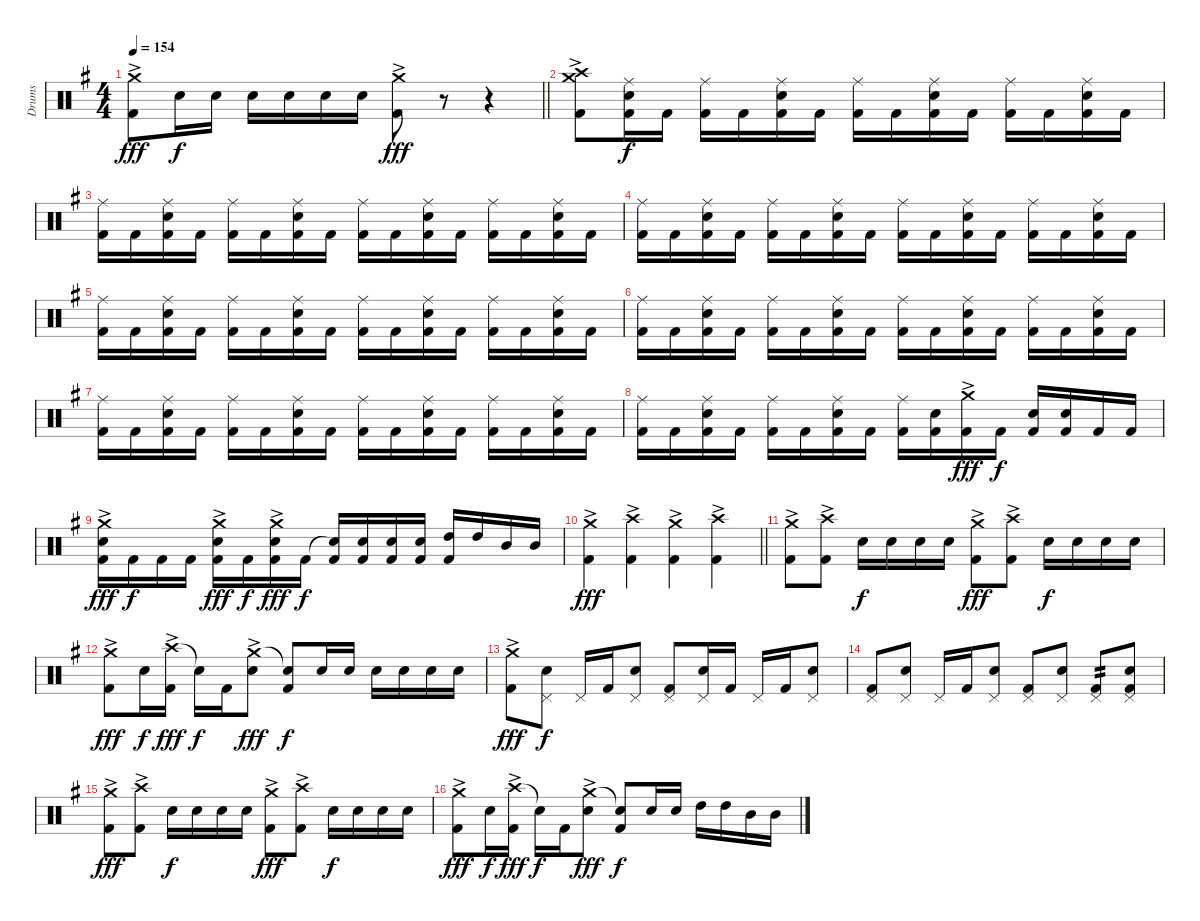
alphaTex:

\track ("Drums" "Drums") {instrument percussion}
\staff {score}
\articulation defaults
\ts (4 4)
\tempo 154
\clef neutral
\barLineRight lightlight
\ks g
("Crash medium (hit)"{ac} "Kick (hit) 2"{ac}).8{dy fff} "Snare (hit) 2".16{dy f} "Snare (hit) 2".16 "Snare (hit) 2".16 "Snare (hit) 2".16 "Snare (hit) 2".16 "Snare (hit) 2".16 ("Crash medium (hit)"{ac} "Kick (hit) 2"{ac}).8{dy fff} r.8 r.4 |
("Crash medium (hit)"{ac} "Crash high (hit)"{ac} "Kick (hit) 2"{ac}).8 ("Ride (middle)" "Snare (hit) 2" "Kick (hit) 2").16{dy f} "Kick (hit) 2".16 ("Ride (middle)" "Kick (hit) 2").16 "Kick (hit) 2".16 ("Ride (middle)" "Snare (hit) 2" "Kick (hit) 2").16 "Kick (hit) 2".16 ("Ride (middle)" "Kick (hit) 2").16 "Kick (hit) 2".16 ("Ride (middle)" "Snare (hit) 2" "Kick (hit) 2").16 "Kick (hit) 2".16 ("Ride (middle)" "Kick (hit) 2").16 "Kick (hit) 2".16 ("Ride (middle)" "Snare (hit) 2" "Kick (hit) 2").16 "Kick (hit) 2".16 |
("Ride (middle)" "Kick (hit) 2").16 "Kick (hit) 2".16 ("Ride (middle)" "Snare (hit) 2" "Kick (hit) 2").16 "Kick (hit) 2".16 ("Ride (middle)" "Kick (hit) 2").16 "Kick (hit) 2".16 ("Ride (middle)" "Snare (hit) 2" "Kick (hit) 2").16 "Kick (hit) 2".16 ("Ride (middle)" "Kick (hit) 2").16 "Kick (hit) 2".16 ("Ride (middle)" "Snare (hit) 2" "Kick (hit) 2").16 "Kick (hit) 2".16 ("Ride (middle)" "Kick (hit) 2").16 "Kick (hit) 2".16 ("Ride (middle)" "Snare (hit) 2" "Kick (hit) 2").16 "Kick (hit) 2".16 |
("Ride (middle)" "Kick (hit) 2").16 "Kick (hit) 2".16 ("Ride (middle)" "Snare (hit) 2" "Kick (hit) 2").16 "Kick (hit) 2".16 ("Ride (middle)" "Kick (hit) 2").16 "Kick (hit) 2".16 ("Ride (middle)" "Snare (hit) 2" "Kick (hit) 2").16 "Kick (hit) 2".16 ("Ride (middle)" "Kick (hit) 2").16 "Kick (hit) 2".16 ("Ride (middle)" "Snare (hit) 2" "Kick (hit) 2").16 "Kick (hit) 2".16 ("Ride (middle)" "Kick (hit) 2").16 "Kick (hit) 2".16 ("Ride (middle)" "Snare (hit) 2" "Kick (hit) 2").16 "Kick (hit) 2".16 |
("Ride (middle)" "Kick (hit) 2").16 "Kick (hit) 2".16 ("Ride (middle)" "Snare (hit) 2" "Kick (hit) 2").16 "Kick (hit) 2".16 ("Ride (middle)" "Kick (hit) 2").16 "Kick (hit) 2".16 ("Ride (middle)" "Snare (hit) 2" "Kick (hit) 2").16 "Kick (hit) 2".16 ("Ride (middle)" "Kick (hit) 2").16 "Kick (hit) 2".16 ("Ride (middle)" "Snare (hit) 2" "Kick (hit) 2").16 "Kick (hit) 2".16 ("Ride (middle)" "Kick (hit) 2").16 "Kick (hit) 2".16 ("Ride (middle)" "Snare (hit) 2" "Kick (hit) 2").16 "Kick (hit) 2".16 |
("Ride (middle)" "Kick (hit) 2").16 "Kick (hit) 2".16 ("Ride (middle)" "Snare (hit) 2" "Kick (hit) 2").16 "Kick (hit) 2".16 ("Ride (middle)" "Kick (hit) 2").16 "Kick (hit) 2".16 ("Ride (middle)" "Snare (hit) 2" "Kick (hit) 2").16 "Kick (hit) 2".16 ("Ride (middle)" "Kick (hit) 2").16 "Kick (hit) 2".16 ("Ride (middle)" "Snare (hit) 2" "Kick (hit) 2").16 "Kick (hit) 2".16 ("Ride (middle)" "Kick (hit) 2").16 "Kick (hit) 2".16 ("Ride (middle)" "Snare (hit) 2" "Kick (hit) 2").16 "Kick (hit) 2".16 |
("Ride (middle)" "Kick (hit) 2").16 "Kick (hit) 2".16 ("Ride (middle)" "Snare (hit) 2" "Kick (hit) 2").16 "Kick (hit) 2".16 ("Ride (middle)" "Kick (hit) 2").16 "Kick (hit) 2".16 ("Ride (middle)" "Snare (hit) 2" "Kick (hit) 2").16 "Kick (hit) 2".16 ("Ride (middle)" "Kick (hit) 2").16 "Kick (hit) 2".16 ("Ride (middle)" "Snare (hit) 2" "Kick (hit) 2").16 "Kick (hit) 2".16 ("Ride (middle)" "Kick (hit) 2").16 "Kick (hit) 2".16 ("Ride (middle)" "Snare (hit) 2" "Kick (hit) 2").16 "Kick (hit) 2".16 |
("Ride (middle)" "Kick (hit) 2").16 "Kick (hit) 2".16 ("Ride (middle)" "Snare (hit) 2" "Kick (hit) 2").16 "Kick (hit) 2".16 ("Ride (middle)" "Kick (hit) 2").16 "Kick (hit) 2".16 ("Ride (middle)" "Snare (hit) 2" "Kick (hit) 2").16 "Kick (hit) 2".16 ("Ride (middle)" "Kick (hit) 2").16 ("Snare (hit) 2" "Kick (hit) 2").16 ("Crash medium (hit)"{ac} "Kick (hit) 2").16{dy fff} "Kick (hit) 2".16{dy f} ("Snare (hit) 2" "Kick (hit) 2").16 ("Snare (hit) 2" "Kick (hit) 2").16 "Kick (hit) 2".16 "Kick (hit) 2".16 |
("Crash medium (hit)"{ac} "Snare (hit) 2"{ac} "Kick (hit) 2").16{dy fff} "Kick (hit) 2".16{dy f} "Kick (hit) 2".16 "Kick (hit) 2".16 ("Crash medium (hit)"{ac} "Snare (hit) 2"{ac} "Kick (hit) 2").16{dy fff} "Kick (hit) 2".16{dy f} ("Crash medium (hit)"{ac} "Snare (hit) 2"{ac} "Kick (hit) 2").16{dy fff} "Kick (hit) 2".16{dy f} ("Snare (hit)"{t} "Kick (hit) 2").16 ("Snare (hit) 2" "Kick (hit) 2").16 ("Snare (hit) 2" "Kick (hit) 2").16 ("Snare (hit) 2" "Kick (hit) 2").16 ("High Tom (hit)" "Kick (hit) 2").16 "High Tom (hit)".16 "Mid Tom (hit)".16 "Mid Tom (hit)".16 |
\barLineRight lightlight
("Crash medium (hit)"{ac} "Kick (hit) 2"{ac}).4{dy fff} ("Crash high (hit)"{ac} "Kick (hit) 2"{ac}).4 ("Crash medium (hit)"{ac} "Kick (hit) 2"{ac}).4 ("Crash high (hit)"{ac} "Kick (hit) 2"{ac}).4 |
("Crash medium (hit)"{ac} "Kick (hit) 2"{ac}).8 ("Crash high (hit)"{ac} "Kick (hit) 2"{ac}).8 "Snare (hit) 2".16{dy f} "Snare (hit) 2".16 "Snare (hit) 2".16 "Snare (hit) 2".16 ("Crash medium (hit)"{ac} "Kick (hit) 2"{ac}).8{dy fff} ("Crash high (hit)"{ac} "Kick (hit) 2"{ac}).8 "Snare (hit) 2".16{dy f} "Snare (hit) 2".16 "Snare (hit) 2".16 "Snare (hit) 2".16 |
("Crash medium (hit)"{ac} "Kick (hit) 2"{ac}).8{dy fff} "Snare (hit) 2".16{dy f} ("Crash high (hit)"{ac} "Kick (hit) 2"{ac}).16{dy fff} "Snare (hit)"{t}.16{dy f} "Kick (hit) 2".16 ("Crash medium (hit)"{ac} "Snare (hit) 2"{ac}).8{dy fff} ("Snare (hit)"{t} "Kick (hit) 2").8{dy f} "Snare (hit) 2".16 "Snare (hit) 2".16 "Snare (hit) 2".16 "Snare (hit) 2".16 "Snare (hit) 2".16 "Snare (hit) 2".16 |
("Crash medium (hit)"{ac} "Kick (hit) 2"{ac}).8{dy fff} ("Pedal Hi-Hat (hit)" "Snare (hit) 2").8{dy f} "Pedal Hi-Hat (hit)".16 "Kick (hit) 2".16 ("Pedal Hi-Hat (hit)" "Snare (hit) 2").8 ("Pedal Hi-Hat (hit)" "Kick (hit) 2").8 ("Pedal Hi-Hat (hit)" "Snare (hit) 2").16 "Kick (hit) 2".16 "Pedal Hi-Hat (hit)".16 "Kick (hit) 2".16 ("Pedal Hi-Hat (hit)" "Snare (hit) 2").8 |
("Pedal Hi-Hat (hit)" "Kick (hit) 2").8 ("Pedal Hi-Hat (hit)" "Snare (hit) 2").8 "Pedal Hi-Hat (hit)".16 "Kick (hit) 2".16 ("Pedal Hi-Hat (hit)" "Snare (hit) 2").8 ("Pedal Hi-Hat (hit)" "Kick (hit) 2").8 ("Pedal Hi-Hat (hit)" "Snare (hit) 2").8 ("Pedal Hi-Hat (hit)" "Kick (hit) 2").8{tp 2} ("Pedal Hi-Hat (hit)" "Snare (hit) 2" "Kick (hit) 2").8 |
("Crash medium (hit)"{ac} "Kick (hit) 2"{ac}).8{dy fff} ("Crash high (hit)"{ac} "Kick (hit) 2"{ac}).8 "Snare (hit) 2".16{dy f} "Snare (hit) 2".16 "Snare (hit) 2".16 "Snare (hit) 2".16 ("Crash medium (hit)"{ac} "Kick (hit) 2"{ac}).8{dy fff} ("Crash high (hit)"{ac} "Kick (hit) 2"{ac}).8 "Snare (hit) 2".16{dy f} "Snare (hit) 2".16 "Snare (hit) 2".16 "Snare (hit) 2".16 |
("Crash medium (hit)"{ac} "Kick (hit) 2"{ac}).8{dy fff} "Snare (hit) 2".16{dy f} ("Crash high (hit)"{ac} "Kick (hit) 2"{ac}).16{dy fff} "Snare (hit)"{t}.16{dy f} "Kick (hit) 2".16 ("Crash medium (hit)"{ac} "Snare (hit) 2"{ac}).8{dy fff} ("Snare (hit)"{t} "Kick (hit) 2").8{dy f} "Snare (hit) 2".16 "Snare (hit) 2".16 "High Tom (hit)".16 "High Tom (hit)".16 "Mid Tom (hit)".16 "Mid Tom (hit)".16
